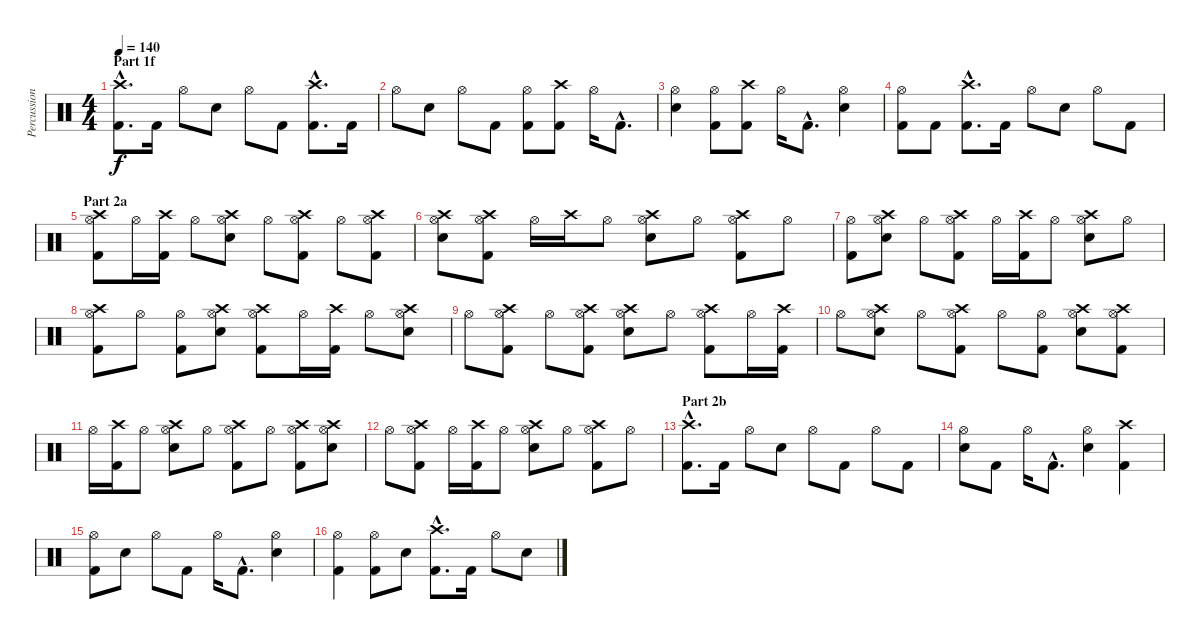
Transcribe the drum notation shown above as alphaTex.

\track ("Percussion" "Percussion") {instrument percussion}
\staff {score}
\articulation defaults
\ts (4 4)
\section ("" "Part 1f")
\tempo 140
\clef neutral
\ks c
("Crash high (hit)"{hac} "Kick (hit) 2"{hac}).8{d dy f} "Kick (hit) 2".16 "Hi-Hat (open)".8 "Electric Snare (hit)".8 "Hi-Hat (open)".8 "Kick (hit) 2".8 ("Crash high (hit)"{hac} "Kick (hit) 2"{hac}).8{d} "Kick (hit) 2".16 |
"Hi-Hat (open)".8 "Electric Snare (hit)".8 "Hi-Hat (open)".8 "Kick (hit) 2".8 ("Hi-Hat (open)" "Kick (hit) 2").8 ("Crash high (hit)" "Kick (hit) 2").8 "Hi-Hat (open)".16 "Kick (hit) 2"{hac}.8{d} |
("Hi-Hat (open)" "Electric Snare (hit)").4 ("Hi-Hat (open)" "Kick (hit) 2").8 ("Crash high (hit)" "Kick (hit) 2").8 "Hi-Hat (open)".16 "Kick (hit) 2"{hac}.8{d} ("Hi-Hat (open)" "Electric Snare (hit)").4 |
("Hi-Hat (open)" "Kick (hit) 2").8 "Kick (hit) 2".8 ("Crash high (hit)"{hac} "Kick (hit) 2"{hac}).8{d} "Kick (hit) 2".16 "Hi-Hat (open)".8 "Electric Snare (hit)".8 "Hi-Hat (open)".8 "Kick (hit) 2".8 |
\section ("" "Part 2a")
("Crash high (hit)" "Hi-Hat (open)" "Kick (hit) 2").8 "Hi-Hat (open)".16 ("Crash high (hit)" "Kick (hit) 2").16 "Hi-Hat (open)".8 ("Crash high (hit)" "Hi-Hat (open)" "Electric Snare (hit)").8 "Hi-Hat (open)".8 ("Crash high (hit)" "Hi-Hat (open)" "Kick (hit) 2").8 "Hi-Hat (open)".8 ("Crash high (hit)" "Hi-Hat (open)" "Kick (hit) 2").8 |
("Crash high (hit)" "Hi-Hat (open)" "Electric Snare (hit)").8 ("Crash high (hit)" "Hi-Hat (open)" "Kick (hit) 2").8 "Hi-Hat (open)".16 "Crash high (hit)".16 "Hi-Hat (open)".8 ("Crash high (hit)" "Hi-Hat (open)" "Electric Snare (hit)").8 "Hi-Hat (open)".8 ("Crash high (hit)" "Hi-Hat (open)" "Kick (hit) 2").8 "Hi-Hat (open)".8 |
("Hi-Hat (open)" "Kick (hit) 2").8 ("Crash high (hit)" "Hi-Hat (open)" "Electric Snare (hit)").8 "Hi-Hat (open)".8 ("Crash high (hit)" "Hi-Hat (open)" "Kick (hit) 2").8 "Hi-Hat (open)".16 ("Crash high (hit)" "Kick (hit) 2").16 "Hi-Hat (open)".8 ("Crash high (hit)" "Hi-Hat (open)" "Electric Snare (hit)").8 "Hi-Hat (open)".8 |
("Crash high (hit)" "Hi-Hat (open)" "Kick (hit) 2").8 "Hi-Hat (open)".8 ("Hi-Hat (open)" "Kick (hit) 2").8 ("Crash high (hit)" "Hi-Hat (open)" "Electric Snare (hit)").8 ("Crash high (hit)" "Hi-Hat (open)" "Kick (hit) 2").8 "Hi-Hat (open)".16 ("Crash high (hit)" "Kick (hit) 2").16 "Hi-Hat (open)".8 ("Crash high (hit)" "Hi-Hat (open)" "Electric Snare (hit)").8 |
"Hi-Hat (open)".8 ("Crash high (hit)" "Hi-Hat (open)" "Kick (hit) 2").8 "Hi-Hat (open)".8 ("Crash high (hit)" "Hi-Hat (open)" "Kick (hit) 2").8 ("Crash high (hit)" "Hi-Hat (open)" "Electric Snare (hit)").8 "Hi-Hat (open)".8 ("Crash high (hit)" "Hi-Hat (open)" "Kick (hit) 2").8 "Hi-Hat (open)".16 ("Crash high (hit)" "Kick (hit) 2").16 |
"Hi-Hat (open)".8 ("Crash high (hit)" "Hi-Hat (open)" "Electric Snare (hit)").8 "Hi-Hat (open)".8 ("Crash high (hit)" "Hi-Hat (open)" "Kick (hit) 2").8 "Hi-Hat (open)".8 ("Hi-Hat (open)" "Kick (hit) 2").8 ("Crash high (hit)" "Hi-Hat (open)" "Electric Snare (hit)").8 ("Crash high (hit)" "Hi-Hat (open)" "Kick (hit) 2").8 |
"Hi-Hat (open)".16 ("Crash high (hit)" "Kick (hit) 2").16 "Hi-Hat (open)".8 ("Crash high (hit)" "Hi-Hat (open)" "Electric Snare (hit)").8 "Hi-Hat (open)".8 ("Crash high (hit)" "Hi-Hat (open)" "Kick (hit) 2").8 "Hi-Hat (open)".8 ("Crash high (hit)" "Hi-Hat (open)" "Kick (hit) 2").8 ("Crash high (hit)" "Hi-Hat (open)" "Electric Snare (hit)").8 |
"Hi-Hat (open)".8 ("Crash high (hit)" "Hi-Hat (open)" "Kick (hit) 2").8 "Hi-Hat (open)".16 ("Crash high (hit)" "Kick (hit) 2").16 "Hi-Hat (open)".8 ("Crash high (hit)" "Hi-Hat (open)" "Electric Snare (hit)").8 "Hi-Hat (open)".8 ("Crash high (hit)" "Hi-Hat (open)" "Kick (hit) 2").8 "Hi-Hat (open)".8 |
\section ("" "Part 2b")
("Crash high (hit)"{hac} "Kick (hit) 2"{hac}).8{d} "Kick (hit) 2".16 "Hi-Hat (open)".8 "Electric Snare (hit)".8 "Hi-Hat (open)".8 "Kick (hit) 2".8 "Hi-Hat (open)".8 "Kick (hit) 2".8 |
("Hi-Hat (open)" "Electric Snare (hit)").8 "Kick (hit) 2".8 "Hi-Hat (open)".16 "Kick (hit) 2"{hac}.8{d} ("Hi-Hat (open)" "Electric Snare (hit)").4 ("Crash high (hit)" "Kick (hit) 2").4 |
("Hi-Hat (open)" "Kick (hit) 2").8 "Electric Snare (hit)".8 "Hi-Hat (open)".8 "Kick (hit) 2".8 "Hi-Hat (open)".16 "Kick (hit) 2"{hac}.8{d} ("Hi-Hat (open)" "Electric Snare (hit)").4 |
("Hi-Hat (open)" "Kick (hit) 2").4 ("Hi-Hat (open)" "Kick (hit) 2").8 "Electric Snare (hit)".8 ("Crash high (hit)"{hac} "Kick (hit) 2"{hac}).8{d} "Kick (hit) 2".16 "Hi-Hat (open)".8 "Electric Snare (hit)".8
